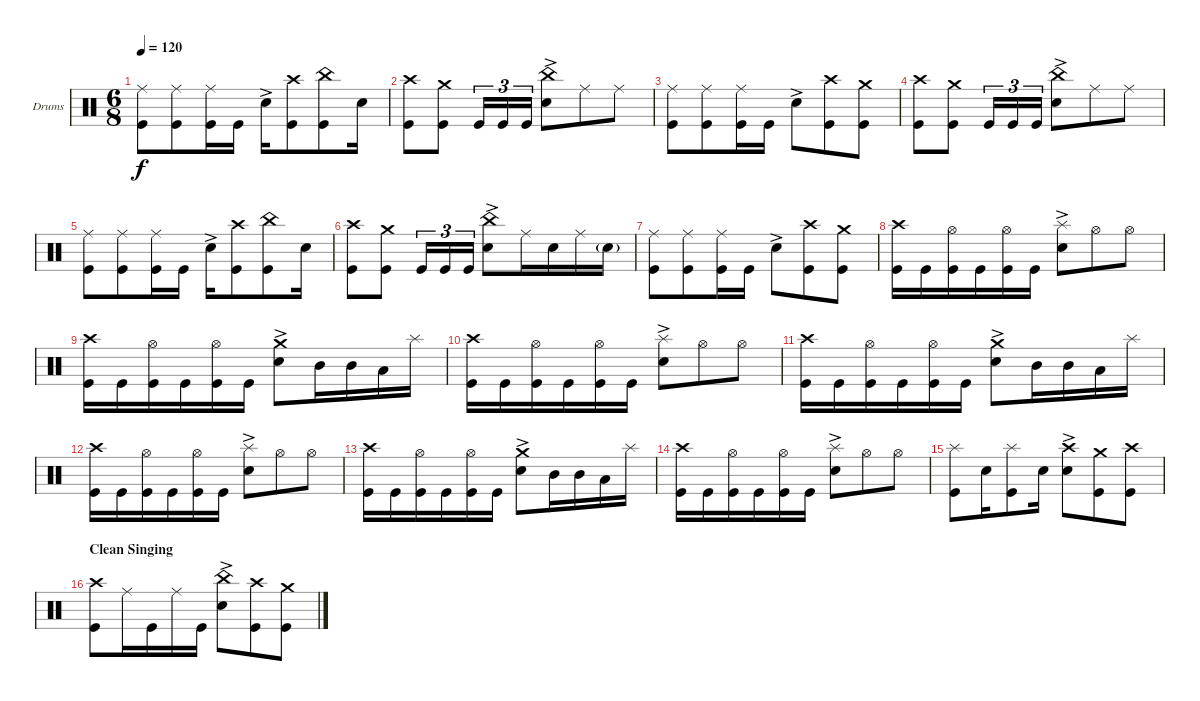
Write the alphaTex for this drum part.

\bracketExtendMode groupsimilarinstruments
\firstSystemTrackNameOrientation horizontal
\otherSystemsTrackNameOrientation horizontal
\track ("Drumkit" "Drums") {instrument percussion}
\staff {score}
\articulation defaults
\ts (6 8)
\tempo 120
\clef neutral
\ks c
("Kick (hit)" "Ride (middle)").8{dy f} ("Kick (hit)" "Ride (middle)").8 ("Kick (hit)" "Ride (middle)").16 "Kick (hit)".16 "Snare (hit) 2"{ac}.16 ("Kick (hit)" "Crash high (hit)").8 ("Kick (hit)" "China (hit)").8 "Snare (hit) 2".16 |
("Kick (hit)" "Crash high (hit)").8 ("Kick (hit)" "Crash medium (hit)").8 "Kick (hit)".16{tu (3 2)} "Kick (hit)".16{tu (3 2)} "Kick (hit)".16{tu (3 2)} ("Snare (hit) 2"{ac} "China (hit)").8 "Ride (middle)".8 "Ride (middle)".8 |
("Kick (hit)" "Ride (middle)").8 ("Kick (hit)" "Ride (middle)").8 ("Kick (hit)" "Ride (middle)").16 "Kick (hit)".16 "Snare (hit) 2"{ac}.8 ("Kick (hit)" "Crash high (hit)").8 ("Kick (hit)" "Crash medium (hit)").8 |
("Kick (hit)" "Crash high (hit)").8 ("Kick (hit)" "Crash medium (hit)").8 "Kick (hit)".16{tu (3 2)} "Kick (hit)".16{tu (3 2)} "Kick (hit)".16{tu (3 2)} ("Snare (hit) 2"{ac} "China (hit)").8 "Ride (middle)".8 "Ride (middle)".8 |
("Kick (hit)" "Ride (middle)").8 ("Kick (hit)" "Ride (middle)").8 ("Kick (hit)" "Ride (middle)").16 "Kick (hit)".16 "Snare (hit) 2"{ac}.16 ("Kick (hit)" "Crash high (hit)").8 ("Kick (hit)" "China (hit)").8 "Snare (hit) 2".16 |
("Kick (hit)" "Crash high (hit)").8 ("Kick (hit)" "Crash medium (hit)").8 "Kick (hit)".16{tu (3 2)} "Kick (hit)".16{tu (3 2)} "Kick (hit)".16{tu (3 2)} ("Snare (hit) 2"{ac} "China (hit)").8 "Ride (middle)".16 "Snare (hit) 2".16 "Ride (middle)".16 "Snare (hit) 2"{g}.16 |
("Kick (hit)" "Ride (middle)").8 ("Kick (hit)" "Ride (middle)").8 ("Kick (hit)" "Ride (middle)").16 "Kick (hit)".16 "Snare (hit) 2"{ac}.8 ("Kick (hit)" "Crash high (hit)").8 ("Kick (hit)" "Crash medium (hit)").8 |
("Crash high (hit)" "Kick (hit)").16 "Kick (hit)".16 ("Kick (hit)" "Hi-Hat (open)").16 "Kick (hit)".16 ("Kick (hit)" "Hi-Hat (open)").16 "Kick (hit)".16 ("Snare (hit) 2"{ac} "Splash (hit)").8 "Hi-Hat (open)".8 "Hi-Hat (open)".8 |
("Crash high (hit)" "Kick (hit)").16 "Kick (hit)".16 ("Kick (hit)" "Hi-Hat (open)").16 "Kick (hit)".16 ("Kick (hit)" "Hi-Hat (open)").16 "Kick (hit)".16 ("Snare (hit) 2"{ac} "Crash medium (hit)").8 "Mid Tom (hit)".16 "Mid Tom (hit)".16 "Low Tom (hit)".16 "Splash (hit)".16 |
("Crash high (hit)" "Kick (hit)").16 "Kick (hit)".16 ("Kick (hit)" "Hi-Hat (open)").16 "Kick (hit)".16 ("Kick (hit)" "Hi-Hat (open)").16 "Kick (hit)".16 ("Snare (hit) 2"{ac} "Splash (hit)").8 "Hi-Hat (open)".8 "Hi-Hat (open)".8 |
("Crash high (hit)" "Kick (hit)").16 "Kick (hit)".16 ("Kick (hit)" "Hi-Hat (open)").16 "Kick (hit)".16 ("Kick (hit)" "Hi-Hat (open)").16 "Kick (hit)".16 ("Snare (hit) 2"{ac} "Crash medium (hit)").8 "Mid Tom (hit)".16 "Mid Tom (hit)".16 "Low Tom (hit)".16 "Splash (hit)".16 |
("Crash high (hit)" "Kick (hit)").16 "Kick (hit)".16 ("Kick (hit)" "Hi-Hat (open)").16 "Kick (hit)".16 ("Kick (hit)" "Hi-Hat (open)").16 "Kick (hit)".16 ("Snare (hit) 2"{ac} "Splash (hit)").8 "Hi-Hat (open)".8 "Hi-Hat (open)".8 |
("Crash high (hit)" "Kick (hit)").16 "Kick (hit)".16 ("Kick (hit)" "Hi-Hat (open)").16 "Kick (hit)".16 ("Kick (hit)" "Hi-Hat (open)").16 "Kick (hit)".16 ("Snare (hit) 2"{ac} "Crash medium (hit)").8 "Mid Tom (hit)".16 "Mid Tom (hit)".16 "Low Tom (hit)".16 "Splash (hit)".16 |
("Crash high (hit)" "Kick (hit)").16 "Kick (hit)".16 ("Kick (hit)" "Hi-Hat (open)").16 "Kick (hit)".16 ("Kick (hit)" "Hi-Hat (open)").16 "Kick (hit)".16 ("Snare (hit) 2"{ac} "Splash (hit)").8 "Hi-Hat (open)".8 "Hi-Hat (open)".8 |
("Kick (hit)" "Splash (hit)").8 "Snare (hit) 2".16 ("Kick (hit)" "Splash (hit)").8 "Snare (hit) 2".16 ("Snare (hit) 2"{ac} "Crash high (hit)").8 ("Kick (hit)" "Crash medium (hit)").8 ("Kick (hit)" "Crash high (hit)").8 |
\section ("" "Clean Singing")
("Kick (hit)" "Crash high (hit)").8 "Ride (middle)".16 "Kick (hit)".16 "Ride (middle)".16 "Kick (hit)".16 ("Snare (hit) 2"{ac} "China (hit)").8 ("Kick (hit)" "Crash high (hit)").8 ("Kick (hit)" "Crash medium (hit)").8
